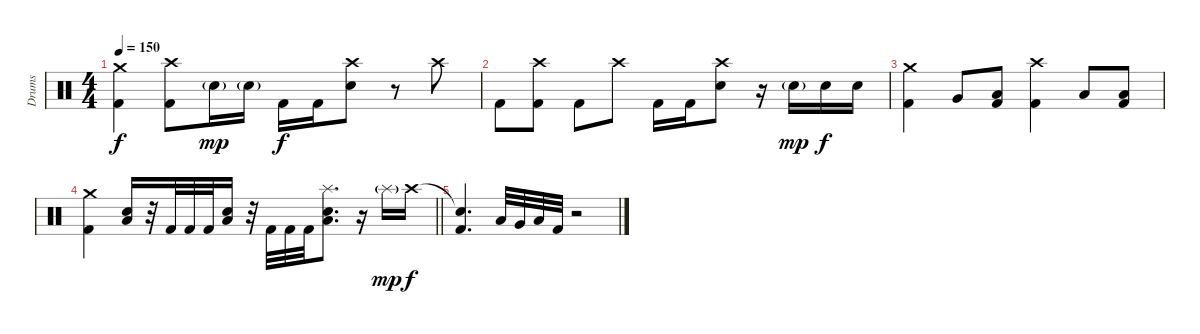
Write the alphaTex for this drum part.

\track ("Drums" "Drums") {instrument percussion}
\staff {score}
\articulation defaults
\ts (4 4)
\tempo 150
\clef neutral
\ks c
("Crash medium (hit)" "Kick (hit) 2").4{dy f} ("Crash high (hit)" "Kick (hit) 2").8 "Electric Snare (hit)"{g}.16{dy mp} "Electric Snare (hit)"{g}.16 "Kick (hit) 2".16{dy f} "Kick (hit) 2".16 ("Crash high (hit)" "Electric Snare (hit)").8 r.8 "Crash high (hit)".8 |
"Kick (hit) 2".8 ("Crash high (hit)" "Kick (hit) 2").8 "Kick (hit) 2".8 "Crash high (hit)".8 "Kick (hit) 2".16 "Kick (hit) 2".16 ("Crash high (hit)" "Electric Snare (hit)").8 r.16 "Electric Snare (hit)"{g}.16{dy mp} "Electric Snare (hit)".16{dy f} "Electric Snare (hit)".16 |
("Crash medium (hit)" "Kick (hit) 2").4 "Very Low Tom (hit)".8 ("Low Floor Tom (hit)" "Kick (hit) 2").8 ("Crash high (hit)" "Kick (hit) 2").4 "Low Tom (hit)".8 ("Low Floor Tom (hit)" "Kick (hit) 2").8 |
\barLineRight lightlight
("Crash medium (hit)" "Kick (hit) 2").4 ("Low Floor Tom (hit)" "Electric Snare (hit)").16 r.32 "Kick (hit) 2".32 "Kick (hit) 2".32 "Kick (hit) 2".32 ("Low Floor Tom (hit)" "Electric Snare (hit)").16 r.32 "Kick (hit) 2".32 "Kick (hit) 2".32 "Kick (hit) 2".32 ("Splash (hit)" "Low Floor Tom (hit)" "Electric Snare (hit)").8{d} r.16 "Splash (hit)"{g}.16{dy mp} "Crash high (hit)".16{dy f} |
("Snare (hit)"{t} "Kick (hit) 2").4{d} "Low Floor Tom (hit)".32 "Very Low Tom (hit)".32 "Low Floor Tom (hit)".32 "Kick (hit) 2".32 r.2
